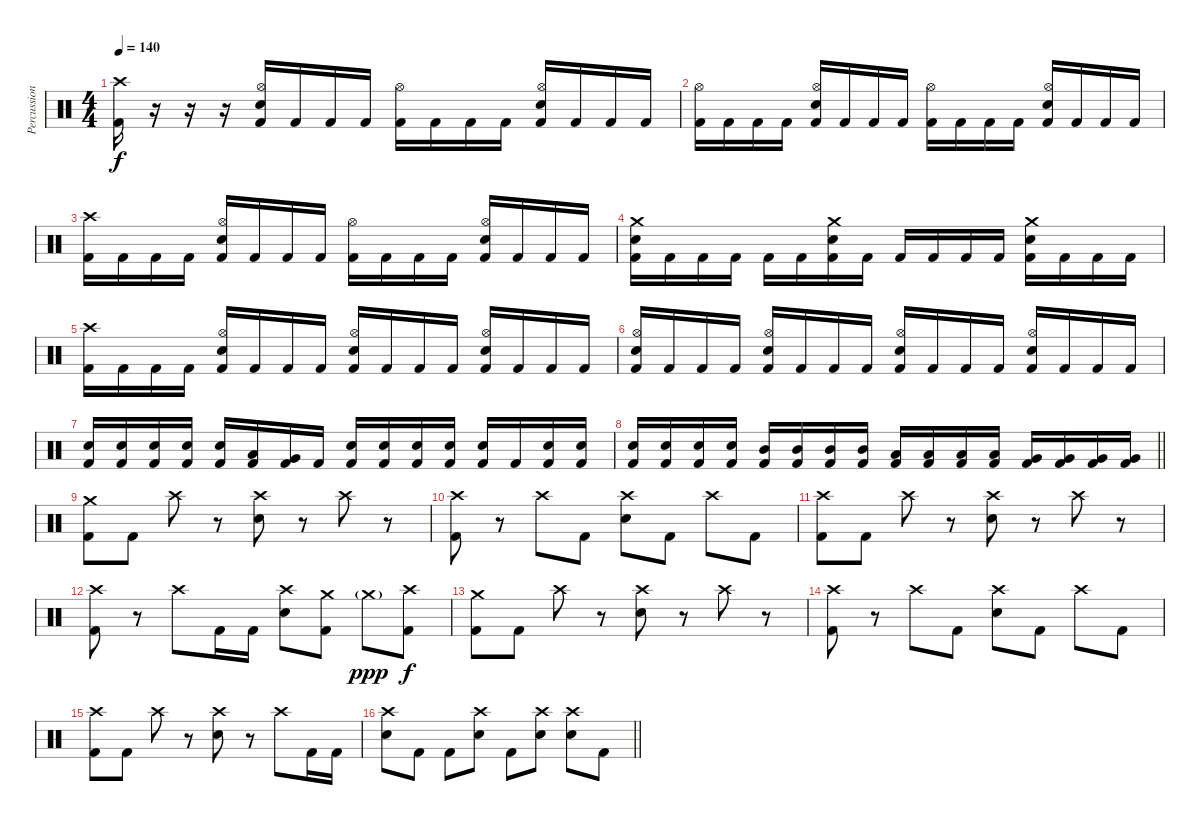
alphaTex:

\track ("Percussion" "Percussion") {instrument percussion}
\staff {score}
\articulation defaults
\ts (4 4)
\section ("" "")
\tempo 140
\clef neutral
\ks c
("Crash high (hit)" "Kick (hit) 2").16{dy f} r.16 r.16 r.16 ("Hi-Hat (open)" "Snare (hit) 2" "Kick (hit) 2").16 "Kick (hit) 2".16 "Kick (hit) 2".16 "Kick (hit) 2".16 ("Hi-Hat (open)" "Kick (hit) 2").16 "Kick (hit) 2".16 "Kick (hit) 2".16 "Kick (hit) 2".16 ("Hi-Hat (open)" "Snare (hit) 2" "Kick (hit) 2").16 "Kick (hit) 2".16 "Kick (hit) 2".16 "Kick (hit) 2".16 |
("Hi-Hat (open)" "Kick (hit) 2").16 "Kick (hit) 2".16 "Kick (hit) 2".16 "Kick (hit) 2".16 ("Hi-Hat (open)" "Snare (hit) 2" "Kick (hit) 2").16 "Kick (hit) 2".16 "Kick (hit) 2".16 "Kick (hit) 2".16 ("Hi-Hat (open)" "Kick (hit) 2").16 "Kick (hit) 2".16 "Kick (hit) 2".16 "Kick (hit) 2".16 ("Hi-Hat (open)" "Snare (hit) 2" "Kick (hit) 2").16 "Kick (hit) 2".16 "Kick (hit) 2".16 "Kick (hit) 2".16 |
("Crash high (hit)" "Kick (hit) 2").16 "Kick (hit) 2".16 "Kick (hit) 2".16 "Kick (hit) 2".16 ("Hi-Hat (open)" "Snare (hit) 2" "Kick (hit) 2").16 "Kick (hit) 2".16 "Kick (hit) 2".16 "Kick (hit) 2".16 ("Hi-Hat (open)" "Kick (hit) 2").16 "Kick (hit) 2".16 "Kick (hit) 2".16 "Kick (hit) 2".16 ("Hi-Hat (open)" "Snare (hit) 2" "Kick (hit) 2").16 "Kick (hit) 2".16 "Kick (hit) 2".16 "Kick (hit) 2".16 |
("Crash medium (hit)" "Snare (hit) 2" "Kick (hit) 2").16 "Kick (hit) 2".16 "Kick (hit) 2".16 "Kick (hit) 2".16 "Kick (hit) 2".16 "Kick (hit) 2".16 ("Crash medium (hit)" "Snare (hit) 2" "Kick (hit) 2").16 "Kick (hit) 2".16 "Kick (hit) 2".16 "Kick (hit) 2".16 "Kick (hit) 2".16 "Kick (hit) 2".16 ("Crash medium (hit)" "Snare (hit) 2" "Kick (hit) 2").16 "Kick (hit) 2".16 "Kick (hit) 2".16 "Kick (hit) 2".16 |
("Crash high (hit)" "Kick (hit) 2").16 "Kick (hit) 2".16 "Kick (hit) 2".16 "Kick (hit) 2".16 ("Hi-Hat (open)" "Snare (hit) 2" "Kick (hit) 2").16 "Kick (hit) 2".16 "Kick (hit) 2".16 "Kick (hit) 2".16 ("Hi-Hat (open)" "Snare (hit) 2" "Kick (hit) 2").16 "Kick (hit) 2".16 "Kick (hit) 2".16 "Kick (hit) 2".16 ("Hi-Hat (open)" "Snare (hit) 2" "Kick (hit) 2").16 "Kick (hit) 2".16 "Kick (hit) 2".16 "Kick (hit) 2".16 |
("Hi-Hat (open)" "Snare (hit) 2" "Kick (hit) 2").16 "Kick (hit) 2".16 "Kick (hit) 2".16 "Kick (hit) 2".16 ("Hi-Hat (open)" "Snare (hit) 2" "Kick (hit) 2").16 "Kick (hit) 2".16 "Kick (hit) 2".16 "Kick (hit) 2".16 ("Hi-Hat (open)" "Snare (hit) 2" "Kick (hit) 2").16 "Kick (hit) 2".16 "Kick (hit) 2".16 "Kick (hit) 2".16 ("Hi-Hat (open)" "Snare (hit) 2" "Kick (hit) 2").16 "Kick (hit) 2".16 "Kick (hit) 2".16 "Kick (hit) 2".16 |
("Snare (hit) 2" "Kick (hit) 2").16 ("Snare (hit) 2" "Kick (hit) 2").16 ("Snare (hit) 2" "Kick (hit) 2").16 ("Snare (hit) 2" "Kick (hit) 2").16 ("Snare (hit) 2" "Kick (hit) 2").16 ("Low Tom (hit)" "Kick (hit) 2").16 ("Very Low Tom (hit)" "Kick (hit) 2").16 "Kick (hit) 2".16 ("Snare (hit) 2" "Kick (hit) 2").16 ("Snare (hit) 2" "Kick (hit) 2").16 ("Snare (hit) 2" "Kick (hit) 2").16 ("Snare (hit) 2" "Kick (hit) 2").16 ("Snare (hit) 2" "Kick (hit) 2").16 "Kick (hit) 2".16 ("Snare (hit) 2" "Kick (hit) 2").16 ("Snare (hit) 2" "Kick (hit) 2").16 |
\barLineRight lightlight
("Snare (hit) 2" "Kick (hit) 2").16 ("Snare (hit) 2" "Kick (hit) 2").16 ("Snare (hit) 2" "Kick (hit) 2").16 ("Snare (hit) 2" "Kick (hit) 2").16 ("Mid Tom (hit)" "Kick (hit) 2").16 ("Mid Tom (hit)" "Kick (hit) 2").16 ("Mid Tom (hit)" "Kick (hit) 2").16 ("Mid Tom (hit)" "Kick (hit) 2").16 ("Low Tom (hit)" "Kick (hit) 2").16 ("Low Tom (hit)" "Kick (hit) 2").16 ("Low Tom (hit)" "Kick (hit) 2").16 ("Low Tom (hit)" "Kick (hit) 2").16 ("Very Low Tom (hit)" "Kick (hit) 2").16 ("Very Low Tom (hit)" "Kick (hit) 2").16 ("Very Low Tom (hit)" "Kick (hit) 2").16 ("Very Low Tom (hit)" "Kick (hit) 2").16 |
\section ("" "")
("Crash medium (hit)" "Kick (hit) 2").8 "Kick (hit) 2".8 "Crash high (hit)".8 r.8 ("Crash high (hit)" "Snare (hit) 2").8 r.8 "Crash high (hit)".8 r.8 |
("Crash high (hit)" "Kick (hit) 2").8 r.8 "Crash high (hit)".8 "Kick (hit) 2".8 ("Crash high (hit)" "Snare (hit) 2").8 "Kick (hit) 2".8 "Crash high (hit)".8 "Kick (hit) 2".8 |
("Crash high (hit)" "Kick (hit) 2").8 "Kick (hit) 2".8 "Crash high (hit)".8 r.8 ("Crash high (hit)" "Snare (hit) 2").8 r.8 "Crash high (hit)".8 r.8 |
("Crash high (hit)" "Kick (hit) 2").8 r.8 "Crash high (hit)".8 "Kick (hit) 2".16 "Kick (hit) 2".16 ("Crash high (hit)" "Snare (hit) 2").8 ("Crash medium (hit)" "Kick (hit) 2").8 "Crash medium (hit)"{g}.8{dy ppp} ("Crash high (hit)" "Kick (hit) 2").8{dy f} |
("Crash medium (hit)" "Kick (hit) 2").8 "Kick (hit) 2".8 "Crash high (hit)".8 r.8 ("Crash high (hit)" "Snare (hit) 2").8 r.8 "Crash high (hit)".8 r.8 |
("Crash high (hit)" "Kick (hit) 2").8 r.8 "Crash high (hit)".8 "Kick (hit) 2".8 ("Crash high (hit)" "Snare (hit) 2").8 "Kick (hit) 2".8 "Crash high (hit)".8 "Kick (hit) 2".8 |
("Crash high (hit)" "Kick (hit) 2").8 "Kick (hit) 2".8 "Crash high (hit)".8 r.8 ("Crash high (hit)" "Snare (hit) 2").8 r.8 "Crash high (hit)".8 "Kick (hit) 2".16 "Kick (hit) 2".16 |
\barLineRight lightlight
("Crash high (hit)" "Snare (hit) 2").8 "Kick (hit) 2".8 "Kick (hit) 2".8 ("Crash high (hit)" "Snare (hit) 2").8 "Kick (hit) 2".8 ("Crash high (hit)" "Snare (hit) 2").8 ("Crash high (hit)" "Snare (hit) 2").8 "Kick (hit) 2".8
